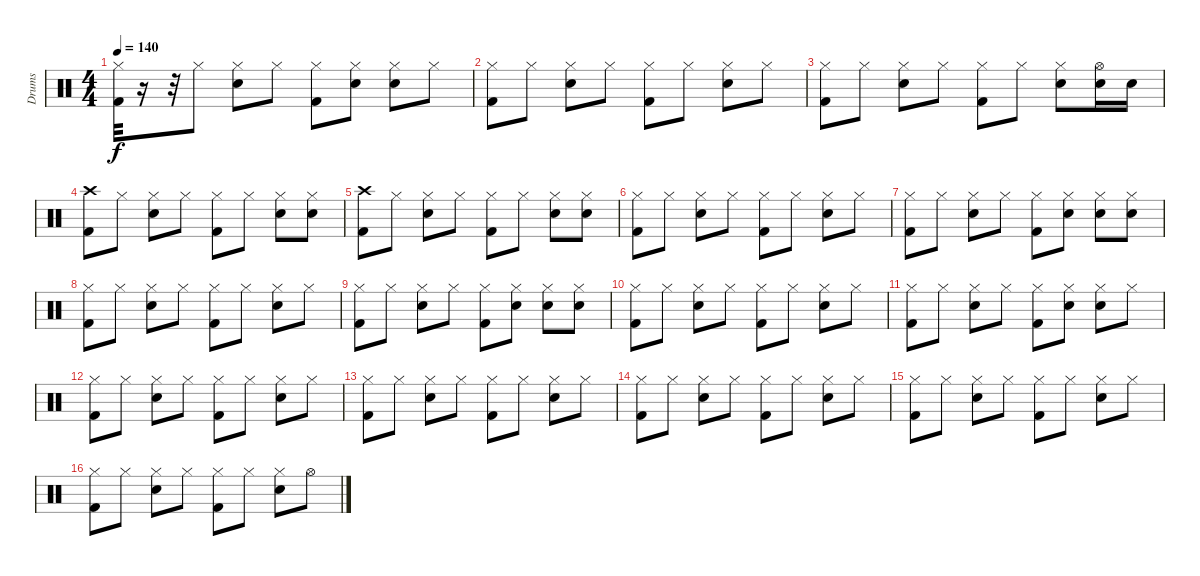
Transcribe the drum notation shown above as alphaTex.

\track ("Drums" "Drums") {instrument percussion}
\staff {score}
\articulation defaults
\ts (4 4)
\tempo 140
\clef neutral
\ks c
("Hi-Hat (closed)" "Kick (hit) 2").32{dy f} r.16 r.32 "Hi-Hat (closed)".8 ("Hi-Hat (closed)" "Snare (hit) 2").8 "Hi-Hat (closed)".8 ("Hi-Hat (closed)" "Kick (hit) 2").8 ("Hi-Hat (closed)" "Snare (hit) 2").8 ("Hi-Hat (closed)" "Snare (hit) 2").8 "Hi-Hat (closed)".8 |
("Hi-Hat (closed)" "Kick (hit) 2").8 "Hi-Hat (closed)".8 ("Hi-Hat (closed)" "Snare (hit) 2").8 "Hi-Hat (closed)".8 ("Hi-Hat (closed)" "Kick (hit) 2").8 "Hi-Hat (closed)".8 ("Hi-Hat (closed)" "Snare (hit) 2").8 "Hi-Hat (closed)".8 |
("Hi-Hat (closed)" "Kick (hit) 2").8 "Hi-Hat (closed)".8 ("Hi-Hat (closed)" "Snare (hit) 2").8 "Hi-Hat (closed)".8 ("Kick (hit) 2" "Hi-Hat (closed)").8 "Hi-Hat (closed)".8 ("Hi-Hat (closed)" "Snare (hit) 2").8 ("Hi-Hat (open)" "Snare (hit) 2").16 "Snare (hit) 2".16 |
("Crash high (hit)" "Kick (hit) 2").8 "Hi-Hat (closed)".8 ("Hi-Hat (closed)" "Snare (hit) 2").8 "Hi-Hat (closed)".8 ("Hi-Hat (closed)" "Kick (hit) 2").8 "Hi-Hat (closed)".8 ("Hi-Hat (closed)" "Snare (hit) 2").8 ("Snare (hit) 2" "Hi-Hat (closed)").8 |
("Crash high (hit)" "Kick (hit) 2").8 "Hi-Hat (closed)".8 ("Hi-Hat (closed)" "Snare (hit) 2").8 "Hi-Hat (closed)".8 ("Hi-Hat (closed)" "Kick (hit) 2").8 "Hi-Hat (closed)".8 ("Hi-Hat (closed)" "Snare (hit) 2").8 ("Snare (hit) 2" "Hi-Hat (closed)").8 |
("Hi-Hat (closed)" "Kick (hit) 2").8 "Hi-Hat (closed)".8 ("Hi-Hat (closed)" "Snare (hit) 2").8 "Hi-Hat (closed)".8 ("Hi-Hat (closed)" "Kick (hit) 2").8 "Hi-Hat (closed)".8 ("Hi-Hat (closed)" "Snare (hit) 2").8 "Hi-Hat (closed)".8 |
("Hi-Hat (closed)" "Kick (hit) 2").8 "Hi-Hat (closed)".8 ("Hi-Hat (closed)" "Snare (hit) 2").8 "Hi-Hat (closed)".8 ("Hi-Hat (closed)" "Kick (hit) 2").8 ("Hi-Hat (closed)" "Snare (hit) 2").8 ("Hi-Hat (closed)" "Snare (hit) 2").8 ("Hi-Hat (closed)" "Snare (hit) 2").8 |
("Hi-Hat (closed)" "Kick (hit) 2").8 "Hi-Hat (closed)".8 ("Hi-Hat (closed)" "Snare (hit) 2").8 "Hi-Hat (closed)".8 ("Hi-Hat (closed)" "Kick (hit) 2").8 "Hi-Hat (closed)".8 ("Hi-Hat (closed)" "Snare (hit) 2").8 "Hi-Hat (closed)".8 |
("Hi-Hat (closed)" "Kick (hit) 2").8 "Hi-Hat (closed)".8 ("Hi-Hat (closed)" "Snare (hit) 2").8 "Hi-Hat (closed)".8 ("Hi-Hat (closed)" "Kick (hit) 2").8 ("Hi-Hat (closed)" "Snare (hit) 2").8 ("Snare (hit) 2" "Hi-Hat (closed)").8 ("Snare (hit) 2" "Hi-Hat (closed)").8 |
("Kick (hit) 2" "Hi-Hat (closed)").8 "Hi-Hat (closed)".8 ("Snare (hit) 2" "Hi-Hat (closed)").8 "Hi-Hat (closed)".8 ("Kick (hit) 2" "Hi-Hat (closed)").8 "Hi-Hat (closed)".8 ("Snare (hit) 2" "Hi-Hat (closed)").8 "Hi-Hat (closed)".8 |
("Kick (hit) 2" "Hi-Hat (closed)").8 "Hi-Hat (closed)".8 ("Hi-Hat (closed)" "Snare (hit) 2").8 "Hi-Hat (closed)".8 ("Hi-Hat (closed)" "Kick (hit) 2").8 ("Snare (hit) 2" "Hi-Hat (closed)").8 ("Snare (hit) 2" "Hi-Hat (closed)").8 "Hi-Hat (closed)".8 |
("Kick (hit) 2" "Hi-Hat (closed)").8 "Hi-Hat (closed)".8 ("Snare (hit) 2" "Hi-Hat (closed)").8 "Hi-Hat (closed)".8 ("Kick (hit) 2" "Hi-Hat (closed)").8 "Hi-Hat (closed)".8 ("Snare (hit) 2" "Hi-Hat (closed)").8 "Hi-Hat (closed)".8 |
("Kick (hit) 2" "Hi-Hat (closed)").8 "Hi-Hat (closed)".8 ("Snare (hit) 2" "Hi-Hat (closed)").8 "Hi-Hat (closed)".8 ("Kick (hit) 2" "Hi-Hat (closed)").8 "Hi-Hat (closed)".8 ("Snare (hit) 2" "Hi-Hat (closed)").8 "Hi-Hat (closed)".8 |
("Kick (hit) 2" "Hi-Hat (closed)").8 "Hi-Hat (closed)".8 ("Snare (hit) 2" "Hi-Hat (closed)").8 "Hi-Hat (closed)".8 ("Kick (hit) 2" "Hi-Hat (closed)").8 "Hi-Hat (closed)".8 ("Snare (hit) 2" "Hi-Hat (closed)").8 "Hi-Hat (closed)".8 |
("Kick (hit) 2" "Hi-Hat (closed)").8 "Hi-Hat (closed)".8 ("Snare (hit) 2" "Hi-Hat (closed)").8 "Hi-Hat (closed)".8 ("Kick (hit) 2" "Hi-Hat (closed)").8 "Hi-Hat (closed)".8 ("Snare (hit) 2" "Hi-Hat (closed)").8 "Hi-Hat (closed)".8 |
("Kick (hit) 2" "Hi-Hat (closed)").8 "Hi-Hat (closed)".8 ("Snare (hit) 2" "Hi-Hat (closed)").8 "Hi-Hat (closed)".8 ("Kick (hit) 2" "Hi-Hat (closed)").8 "Hi-Hat (closed)".8 ("Snare (hit) 2" "Hi-Hat (closed)").8 "Hi-Hat (open)".8
